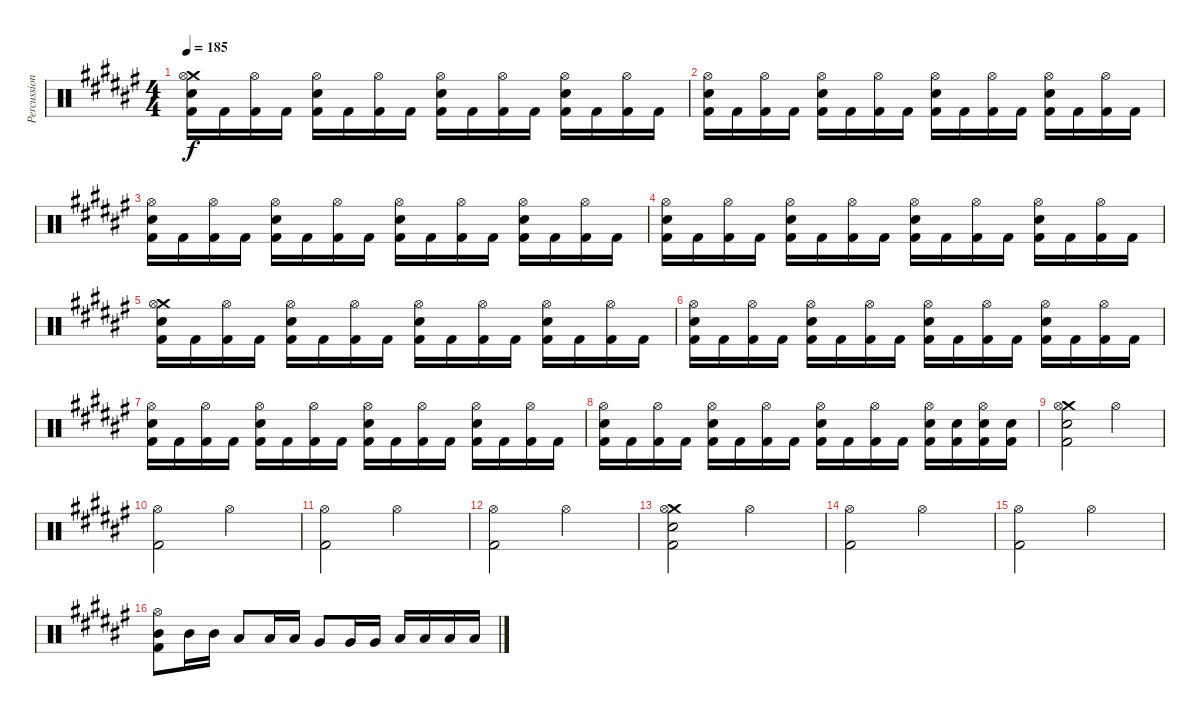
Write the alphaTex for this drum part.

\track ("Percussion" "Percussion") {instrument percussion}
\staff {score}
\articulation defaults
\ts (4 4)
\tempo 185
\clef neutral
\ks d#minor
("Crash medium (hit)" "Hi-Hat (open)" "Electric Snare (hit)" "Kick (hit) 2").16{dy f} "Kick (hit) 2".16 ("Hi-Hat (open)" "Kick (hit) 2").16 "Kick (hit) 2".16 ("Hi-Hat (open)" "Electric Snare (hit)" "Kick (hit) 2").16 "Kick (hit) 2".16 ("Hi-Hat (open)" "Kick (hit) 2").16 "Kick (hit) 2".16 ("Hi-Hat (open)" "Electric Snare (hit)" "Kick (hit) 2").16 "Kick (hit) 2".16 ("Hi-Hat (open)" "Kick (hit) 2").16 "Kick (hit) 2".16 ("Hi-Hat (open)" "Electric Snare (hit)" "Kick (hit) 2").16 "Kick (hit) 2".16 ("Hi-Hat (open)" "Kick (hit) 2").16 "Kick (hit) 2".16 |
("Hi-Hat (open)" "Electric Snare (hit)" "Kick (hit) 2").16 "Kick (hit) 2".16 ("Hi-Hat (open)" "Kick (hit) 2").16 "Kick (hit) 2".16 ("Hi-Hat (open)" "Electric Snare (hit)" "Kick (hit) 2").16 "Kick (hit) 2".16 ("Hi-Hat (open)" "Kick (hit) 2").16 "Kick (hit) 2".16 ("Hi-Hat (open)" "Electric Snare (hit)" "Kick (hit) 2").16 "Kick (hit) 2".16 ("Hi-Hat (open)" "Kick (hit) 2").16 "Kick (hit) 2".16 ("Hi-Hat (open)" "Electric Snare (hit)" "Kick (hit) 2").16 "Kick (hit) 2".16 ("Hi-Hat (open)" "Kick (hit) 2").16 "Kick (hit) 2".16 |
("Hi-Hat (open)" "Electric Snare (hit)" "Kick (hit) 2").16 "Kick (hit) 2".16 ("Hi-Hat (open)" "Kick (hit) 2").16 "Kick (hit) 2".16 ("Hi-Hat (open)" "Electric Snare (hit)" "Kick (hit) 2").16 "Kick (hit) 2".16 ("Hi-Hat (open)" "Kick (hit) 2").16 "Kick (hit) 2".16 ("Hi-Hat (open)" "Electric Snare (hit)" "Kick (hit) 2").16 "Kick (hit) 2".16 ("Hi-Hat (open)" "Kick (hit) 2").16 "Kick (hit) 2".16 ("Hi-Hat (open)" "Electric Snare (hit)" "Kick (hit) 2").16 "Kick (hit) 2".16 ("Hi-Hat (open)" "Kick (hit) 2").16 "Kick (hit) 2".16 |
("Hi-Hat (open)" "Electric Snare (hit)" "Kick (hit) 2").16 "Kick (hit) 2".16 ("Hi-Hat (open)" "Kick (hit) 2").16 "Kick (hit) 2".16 ("Hi-Hat (open)" "Electric Snare (hit)" "Kick (hit) 2").16 "Kick (hit) 2".16 ("Hi-Hat (open)" "Kick (hit) 2").16 "Kick (hit) 2".16 ("Hi-Hat (open)" "Electric Snare (hit)" "Kick (hit) 2").16 "Kick (hit) 2".16 ("Hi-Hat (open)" "Kick (hit) 2").16 "Kick (hit) 2".16 ("Hi-Hat (open)" "Electric Snare (hit)" "Kick (hit) 2").16 "Kick (hit) 2".16 ("Hi-Hat (open)" "Kick (hit) 2").16 "Kick (hit) 2".16 |
("Crash medium (hit)" "Hi-Hat (open)" "Electric Snare (hit)" "Kick (hit) 2").16 "Kick (hit) 2".16 ("Hi-Hat (open)" "Kick (hit) 2").16 "Kick (hit) 2".16 ("Hi-Hat (open)" "Electric Snare (hit)" "Kick (hit) 2").16 "Kick (hit) 2".16 ("Hi-Hat (open)" "Kick (hit) 2").16 "Kick (hit) 2".16 ("Hi-Hat (open)" "Electric Snare (hit)" "Kick (hit) 2").16 "Kick (hit) 2".16 ("Hi-Hat (open)" "Kick (hit) 2").16 "Kick (hit) 2".16 ("Hi-Hat (open)" "Electric Snare (hit)" "Kick (hit) 2").16 "Kick (hit) 2".16 ("Hi-Hat (open)" "Kick (hit) 2").16 "Kick (hit) 2".16 |
("Hi-Hat (open)" "Electric Snare (hit)" "Kick (hit) 2").16 "Kick (hit) 2".16 ("Hi-Hat (open)" "Kick (hit) 2").16 "Kick (hit) 2".16 ("Hi-Hat (open)" "Electric Snare (hit)" "Kick (hit) 2").16 "Kick (hit) 2".16 ("Hi-Hat (open)" "Kick (hit) 2").16 "Kick (hit) 2".16 ("Hi-Hat (open)" "Electric Snare (hit)" "Kick (hit) 2").16 "Kick (hit) 2".16 ("Hi-Hat (open)" "Kick (hit) 2").16 "Kick (hit) 2".16 ("Hi-Hat (open)" "Electric Snare (hit)" "Kick (hit) 2").16 "Kick (hit) 2".16 ("Hi-Hat (open)" "Kick (hit) 2").16 "Kick (hit) 2".16 |
("Hi-Hat (open)" "Electric Snare (hit)" "Kick (hit) 2").16 "Kick (hit) 2".16 ("Hi-Hat (open)" "Kick (hit) 2").16 "Kick (hit) 2".16 ("Hi-Hat (open)" "Electric Snare (hit)" "Kick (hit) 2").16 "Kick (hit) 2".16 ("Hi-Hat (open)" "Kick (hit) 2").16 "Kick (hit) 2".16 ("Hi-Hat (open)" "Electric Snare (hit)" "Kick (hit) 2").16 "Kick (hit) 2".16 ("Hi-Hat (open)" "Kick (hit) 2").16 "Kick (hit) 2".16 ("Hi-Hat (open)" "Electric Snare (hit)" "Kick (hit) 2").16 "Kick (hit) 2".16 ("Hi-Hat (open)" "Kick (hit) 2").16 "Kick (hit) 2".16 |
("Hi-Hat (open)" "Electric Snare (hit)" "Kick (hit) 2").16 "Kick (hit) 2".16 ("Hi-Hat (open)" "Kick (hit) 2").16 "Kick (hit) 2".16 ("Hi-Hat (open)" "Electric Snare (hit)" "Kick (hit) 2").16 "Kick (hit) 2".16 ("Hi-Hat (open)" "Kick (hit) 2").16 "Kick (hit) 2".16 ("Hi-Hat (open)" "Electric Snare (hit)" "Kick (hit) 2").16 "Kick (hit) 2".16 ("Hi-Hat (open)" "Kick (hit) 2").16 "Kick (hit) 2".16 ("Hi-Hat (open)" "Electric Snare (hit)" "Kick (hit) 2").16 ("Electric Snare (hit)" "Kick (hit) 2").16 ("Hi-Hat (open)" "Electric Snare (hit)" "Kick (hit) 2").16 ("Electric Snare (hit)" "Kick (hit) 2").16 |
("Crash medium (hit)" "Hi-Hat (open)" "Electric Snare (hit)" "Kick (hit) 2").2 "Hi-Hat (open)".2 |
("Hi-Hat (open)" "Kick (hit) 2").2 "Hi-Hat (open)".2 |
("Hi-Hat (open)" "Kick (hit) 2").2 "Hi-Hat (open)".2 |
("Hi-Hat (open)" "Kick (hit) 2").2 "Hi-Hat (open)".2 |
("Crash medium (hit)" "Hi-Hat (open)" "Electric Snare (hit)" "Kick (hit) 2").2 "Hi-Hat (open)".2 |
("Hi-Hat (open)" "Kick (hit) 2").2 "Hi-Hat (open)".2 |
("Hi-Hat (open)" "Kick (hit) 2").2 "Hi-Hat (open)".2 |
("Hi-Hat (open)" "Mid Tom (hit)" "Kick (hit) 2").8 "Mid Tom (hit)".16 "Mid Tom (hit)".16 "Low Tom (hit)".8 "Low Tom (hit)".16 "Low Tom (hit)".16 "Very Low Tom (hit)".8 "Very Low Tom (hit)".16 "Very Low Tom (hit)".16 "Low Floor Tom (hit)".16 "Low Floor Tom (hit)".16 "Low Floor Tom (hit)".16 "Low Floor Tom (hit)".16
